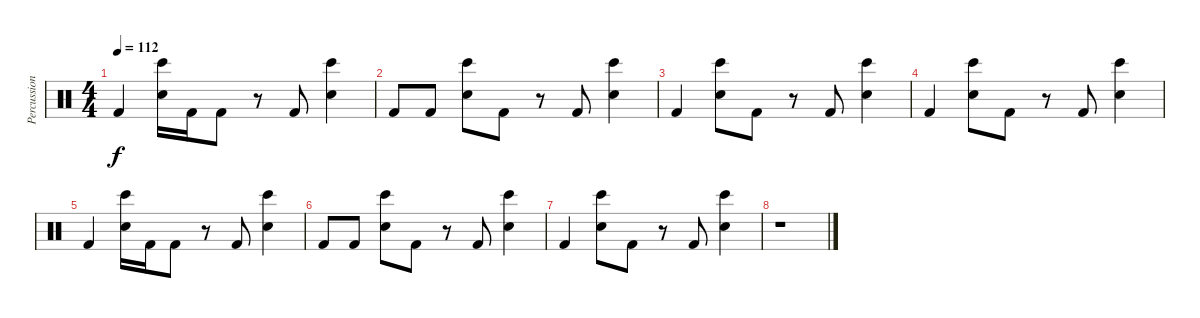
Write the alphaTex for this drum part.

\track ("Percussion" "Percussion") {instrument percussion}
\staff {score}
\articulation defaults
\ts (4 4)
\tempo 112
\clef neutral
\ks c "Kick (hit) 2".4{dy f}
("Bongo High (hit)" "Hand Clap (hit)").16 "Kick (hit) 2".16 "Kick (hit) 2".8 r.8 "Kick (hit) 2".8 ("Bongo High (hit)" "Hand Clap (hit)").4 |
"Kick (hit) 2".8 "Kick (hit) 2".8 ("Bongo High (hit)" "Hand Clap (hit)").8 "Kick (hit) 2".8 r.8 "Kick (hit) 2".8 ("Bongo High (hit)" "Hand Clap (hit)").4 |
"Kick (hit) 2".4 ("Bongo High (hit)" "Hand Clap (hit)").8 "Kick (hit) 2".8 r.8 "Kick (hit) 2".8 ("Bongo High (hit)" "Hand Clap (hit)").4 |
"Kick (hit) 2".4 ("Bongo High (hit)" "Hand Clap (hit)").8 "Kick (hit) 2".8 r.8 "Kick (hit) 2".8 ("Bongo High (hit)" "Hand Clap (hit)").4 |
"Kick (hit) 2".4 ("Bongo High (hit)" "Hand Clap (hit)").16 "Kick (hit) 2".16 "Kick (hit) 2".8 r.8 "Kick (hit) 2".8 ("Bongo High (hit)" "Hand Clap (hit)").4 |
"Kick (hit) 2".8 "Kick (hit) 2".8 ("Bongo High (hit)" "Hand Clap (hit)").8 "Kick (hit) 2".8 r.8 "Kick (hit) 2".8 ("Bongo High (hit)" "Hand Clap (hit)").4 |
"Kick (hit) 2".4 ("Bongo High (hit)" "Hand Clap (hit)").8 "Kick (hit) 2".8 r.8 "Kick (hit) 2".8 ("Bongo High (hit)" "Hand Clap (hit)").4 |
r.1
